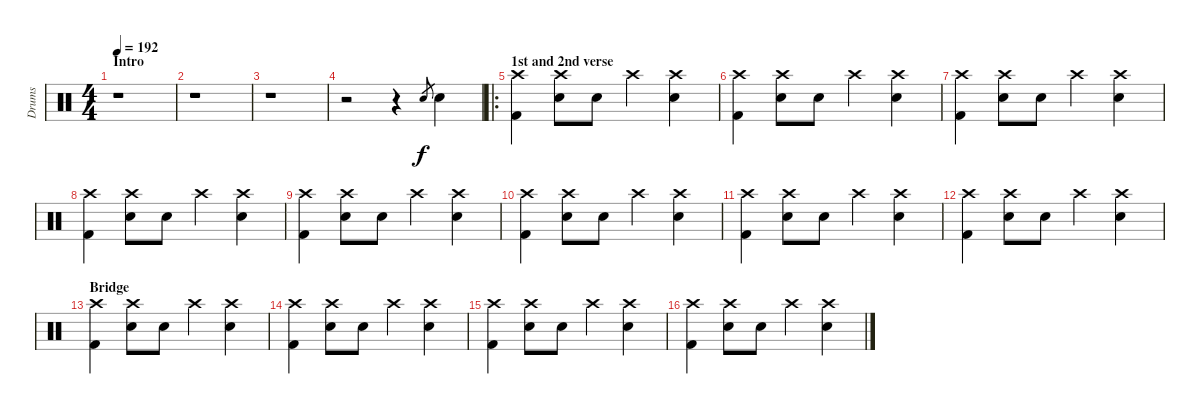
\track ("Drums" "Drums") {instrument percussion}
\staff {score}
\articulation defaults
\ts (4 4)
\section ("" "Intro")
\tempo 192
\clef neutral
\ks c
r.1{dy f} |
r.1 |
r.1 |
r.2 r.4 "Electric Snare (hit)".8{gr} "Electric Snare (hit)".4 |
\ro
\section ("" "1st and 2nd verse")
("Crash high (hit)" "Kick (hit) 2").4 ("Crash high (hit)" "Electric Snare (hit)").8 "Electric Snare (hit)".8 "Crash high (hit)".4 ("Crash high (hit)" "Electric Snare (hit)").4 |
("Crash high (hit)" "Kick (hit) 2").4 ("Crash high (hit)" "Electric Snare (hit)").8 "Electric Snare (hit)".8 "Crash high (hit)".4 ("Crash high (hit)" "Electric Snare (hit)").4 |
("Crash high (hit)" "Kick (hit) 2").4 ("Crash high (hit)" "Electric Snare (hit)").8 "Electric Snare (hit)".8 "Crash high (hit)".4 ("Crash high (hit)" "Electric Snare (hit)").4 |
("Crash high (hit)" "Kick (hit) 2").4 ("Crash high (hit)" "Electric Snare (hit)").8 "Electric Snare (hit)".8 "Crash high (hit)".4 ("Crash high (hit)" "Electric Snare (hit)").4 |
("Crash high (hit)" "Kick (hit) 2").4 ("Crash high (hit)" "Electric Snare (hit)").8 "Electric Snare (hit)".8 "Crash high (hit)".4 ("Crash high (hit)" "Electric Snare (hit)").4 |
("Crash high (hit)" "Kick (hit) 2").4 ("Crash high (hit)" "Electric Snare (hit)").8 "Electric Snare (hit)".8 "Crash high (hit)".4 ("Crash high (hit)" "Electric Snare (hit)").4 |
("Crash high (hit)" "Kick (hit) 2").4 ("Crash high (hit)" "Electric Snare (hit)").8 "Electric Snare (hit)".8 "Crash high (hit)".4 ("Crash high (hit)" "Electric Snare (hit)").4 |
("Crash high (hit)" "Kick (hit) 2").4 ("Crash high (hit)" "Electric Snare (hit)").8 "Electric Snare (hit)".8 "Crash high (hit)".4 ("Crash high (hit)" "Electric Snare (hit)").4 |
\section ("" "Bridge")
("Crash high (hit)" "Kick (hit) 2").4 ("Crash high (hit)" "Electric Snare (hit)").8 "Electric Snare (hit)".8 "Crash high (hit)".4 ("Crash high (hit)" "Electric Snare (hit)").4 |
("Crash high (hit)" "Kick (hit) 2").4 ("Crash high (hit)" "Electric Snare (hit)").8 "Electric Snare (hit)".8 "Crash high (hit)".4 ("Crash high (hit)" "Electric Snare (hit)").4 |
("Crash high (hit)" "Kick (hit) 2").4 ("Crash high (hit)" "Electric Snare (hit)").8 "Electric Snare (hit)".8 "Crash high (hit)".4 ("Crash high (hit)" "Electric Snare (hit)").4 |
("Crash high (hit)" "Kick (hit) 2").4 ("Crash high (hit)" "Electric Snare (hit)").8 "Electric Snare (hit)".8 "Crash high (hit)".4 ("Crash high (hit)" "Electric Snare (hit)").4
